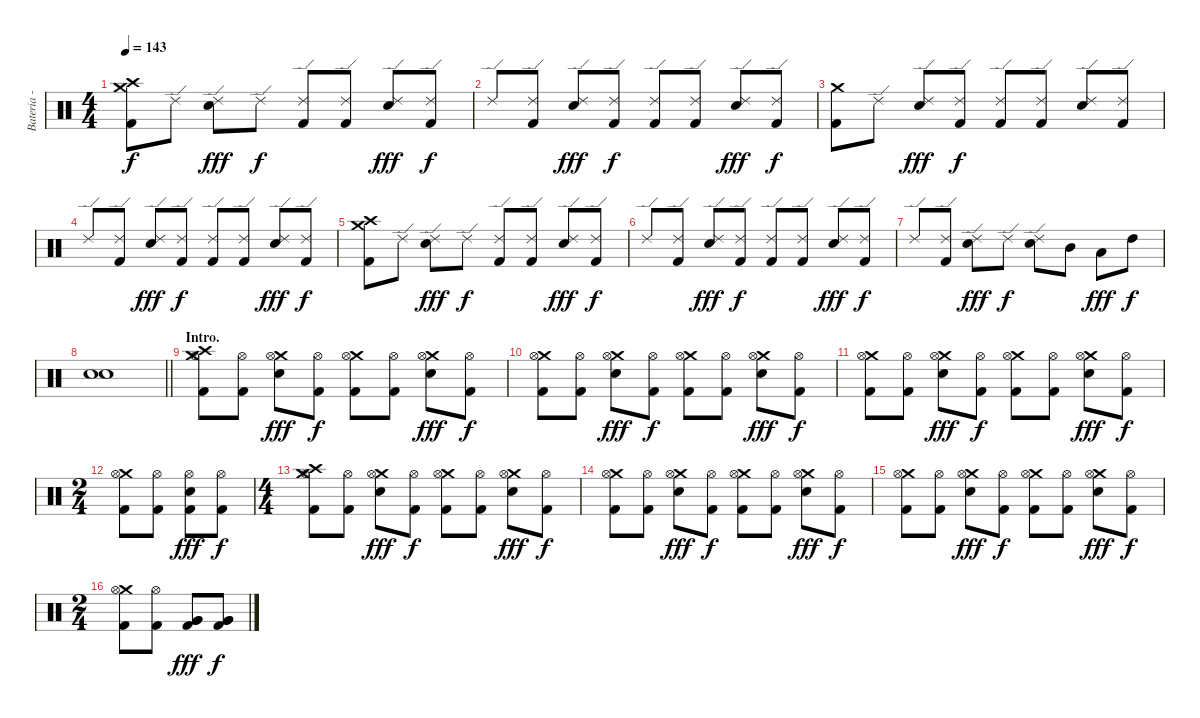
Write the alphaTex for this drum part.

\track ("Bateria - Larzon" "Bateria - ") {instrument percussion}
\staff {score}
\articulation defaults
\ts (4 4)
\tempo 143
\clef neutral
\ks c
("Kick (hit) 2" "Crash medium (hit)" "Crash high (hit)").8{dy f} "Ride (edge) 2".8 ("Electric Snare (hit)" "Ride (edge) 2").8{dy fff} "Ride (edge) 2".8{dy f} ("Kick (hit) 2" "Ride (edge) 2").8 ("Kick (hit) 2" "Ride (edge) 2").8 ("Electric Snare (hit)" "Ride (edge) 2").8{dy fff} ("Kick (hit) 2" "Ride (edge) 2").8{dy f} |
"Ride (edge) 2".8 ("Kick (hit) 2" "Ride (edge) 2").8 ("Electric Snare (hit)" "Ride (edge) 2").8{dy fff} ("Kick (hit) 2" "Ride (edge) 2").8{dy f} ("Kick (hit) 2" "Ride (edge) 2").8 ("Kick (hit) 2" "Ride (edge) 2").8 ("Electric Snare (hit)" "Ride (edge) 2").8{dy fff} ("Kick (hit) 2" "Ride (edge) 2").8{dy f} |
("Kick (hit) 2" "Crash medium (hit)").8 "Ride (edge) 2".8 ("Electric Snare (hit)" "Ride (edge) 2").8{dy fff} ("Kick (hit) 2" "Ride (edge) 2").8{dy f} ("Kick (hit) 2" "Ride (edge) 2").8 ("Kick (hit) 2" "Ride (edge) 2").8 ("Electric Snare (hit)" "Ride (edge) 2").8 ("Kick (hit) 2" "Ride (edge) 2").8 |
"Ride (edge) 2".8 ("Kick (hit) 2" "Ride (edge) 2").8 ("Electric Snare (hit)" "Ride (edge) 2").8{dy fff} ("Kick (hit) 2" "Ride (edge) 2").8{dy f} ("Kick (hit) 2" "Ride (edge) 2").8 ("Kick (hit) 2" "Ride (edge) 2").8 ("Electric Snare (hit)" "Ride (edge) 2").8{dy fff} ("Kick (hit) 2" "Ride (edge) 2").8{dy f} |
("Kick (hit) 2" "Crash medium (hit)" "Crash high (hit)").8 "Ride (edge) 2".8 ("Electric Snare (hit)" "Ride (edge) 2").8{dy fff} "Ride (edge) 2".8{dy f} ("Kick (hit) 2" "Ride (edge) 2").8 ("Kick (hit) 2" "Ride (edge) 2").8 ("Electric Snare (hit)" "Ride (edge) 2").8{dy fff} ("Kick (hit) 2" "Ride (edge) 2").8{dy f} |
"Ride (edge) 2".8 ("Kick (hit) 2" "Ride (edge) 2").8 ("Electric Snare (hit)" "Ride (edge) 2").8{dy fff} ("Kick (hit) 2" "Ride (edge) 2").8{dy f} ("Kick (hit) 2" "Ride (edge) 2").8 ("Kick (hit) 2" "Ride (edge) 2").8 ("Electric Snare (hit)" "Ride (edge) 2").8{dy fff} ("Kick (hit) 2" "Ride (edge) 2").8{dy f} |
"Ride (edge) 2".8 ("Kick (hit) 2" "Ride (edge) 2").8 ("Electric Snare (hit)" "Ride (edge) 2").8{dy fff} "Ride (edge) 2".8{dy f} ("Electric Snare (hit)" "Ride (edge) 2").8 "Mid Tom (hit)".8 "Low Tom (hit)".8{dy fff} "High Tom (hit)".8{dy f} |
\barLineRight lightlight
("Electric Snare (hit)" "Electric Snare (hit)").1 |
\section ("" "Intro.")
("Kick (hit) 2" "Crash medium (hit)" "Crash high (hit)" "Hi-Hat (open)").8 ("Kick (hit) 2" "Hi-Hat (open)").8 ("Electric Snare (hit)" "Crash medium (hit)" "Hi-Hat (open)").8{dy fff} ("Kick (hit) 2" "Hi-Hat (open)").8{dy f} ("Kick (hit) 2" "Crash medium (hit)" "Hi-Hat (open)").8 ("Kick (hit) 2" "Hi-Hat (open)").8 ("Electric Snare (hit)" "Crash medium (hit)" "Hi-Hat (open)").8{dy fff} ("Kick (hit) 2" "Hi-Hat (open)").8{dy f} |
("Kick (hit) 2" "Crash medium (hit)" "Hi-Hat (open)").8 ("Kick (hit) 2" "Hi-Hat (open)").8 ("Electric Snare (hit)" "Crash medium (hit)" "Hi-Hat (open)").8{dy fff} ("Kick (hit) 2" "Hi-Hat (open)").8{dy f} ("Kick (hit) 2" "Crash medium (hit)" "Hi-Hat (open)").8 ("Kick (hit) 2" "Hi-Hat (open)").8 ("Electric Snare (hit)" "Crash medium (hit)" "Hi-Hat (open)").8{dy fff} ("Kick (hit) 2" "Hi-Hat (open)").8{dy f} |
("Kick (hit) 2" "Crash medium (hit)" "Hi-Hat (open)").8 ("Kick (hit) 2" "Hi-Hat (open)").8 ("Electric Snare (hit)" "Crash medium (hit)" "Hi-Hat (open)").8{dy fff} ("Kick (hit) 2" "Hi-Hat (open)").8{dy f} ("Kick (hit) 2" "Crash medium (hit)" "Hi-Hat (open)").8 ("Kick (hit) 2" "Hi-Hat (open)").8 ("Electric Snare (hit)" "Crash medium (hit)" "Hi-Hat (open)").8{dy fff} ("Kick (hit) 2" "Hi-Hat (open)").8{dy f} |
\ts (2 4)
("Kick (hit) 2" "Crash medium (hit)" "Hi-Hat (open)").8 ("Kick (hit) 2" "Hi-Hat (open)").8 ("Kick (hit) 2" "Electric Snare (hit)" "Hi-Hat (open)").8{dy fff} ("Kick (hit) 2" "Hi-Hat (open)").8{dy f} |
\ts (4 4)
("Kick (hit) 2" "Crash medium (hit)" "Crash high (hit)" "Hi-Hat (open)").8 ("Kick (hit) 2" "Hi-Hat (open)").8 ("Electric Snare (hit)" "Crash medium (hit)" "Hi-Hat (open)").8{dy fff} ("Kick (hit) 2" "Hi-Hat (open)").8{dy f} ("Kick (hit) 2" "Crash medium (hit)" "Hi-Hat (open)").8 ("Kick (hit) 2" "Hi-Hat (open)").8 ("Electric Snare (hit)" "Crash medium (hit)" "Hi-Hat (open)").8{dy fff} ("Kick (hit) 2" "Hi-Hat (open)").8{dy f} |
("Kick (hit) 2" "Crash medium (hit)" "Hi-Hat (open)").8 ("Kick (hit) 2" "Hi-Hat (open)").8 ("Electric Snare (hit)" "Crash medium (hit)" "Hi-Hat (open)").8{dy fff} ("Kick (hit) 2" "Hi-Hat (open)").8{dy f} ("Kick (hit) 2" "Crash medium (hit)" "Hi-Hat (open)").8 ("Kick (hit) 2" "Hi-Hat (open)").8 ("Electric Snare (hit)" "Crash medium (hit)" "Hi-Hat (open)").8{dy fff} ("Kick (hit) 2" "Hi-Hat (open)").8{dy f} |
("Kick (hit) 2" "Crash medium (hit)" "Hi-Hat (open)").8 ("Kick (hit) 2" "Hi-Hat (open)").8 ("Electric Snare (hit)" "Crash medium (hit)" "Hi-Hat (open)").8{dy fff} ("Kick (hit) 2" "Hi-Hat (open)").8{dy f} ("Kick (hit) 2" "Crash medium (hit)" "Hi-Hat (open)").8 ("Kick (hit) 2" "Hi-Hat (open)").8 ("Electric Snare (hit)" "Crash medium (hit)" "Hi-Hat (open)").8{dy fff} ("Kick (hit) 2" "Hi-Hat (open)").8{dy f} |
\ts (2 4)
("Kick (hit) 2" "Crash medium (hit)" "Hi-Hat (open)").8 ("Kick (hit) 2" "Hi-Hat (open)").8 ("Kick (hit) 2" "Very Low Tom (hit)" "Very Low Tom (hit)").8{dy fff} ("Kick (hit) 2" "Very Low Tom (hit)" "Very Low Tom (hit)").8{dy f}
